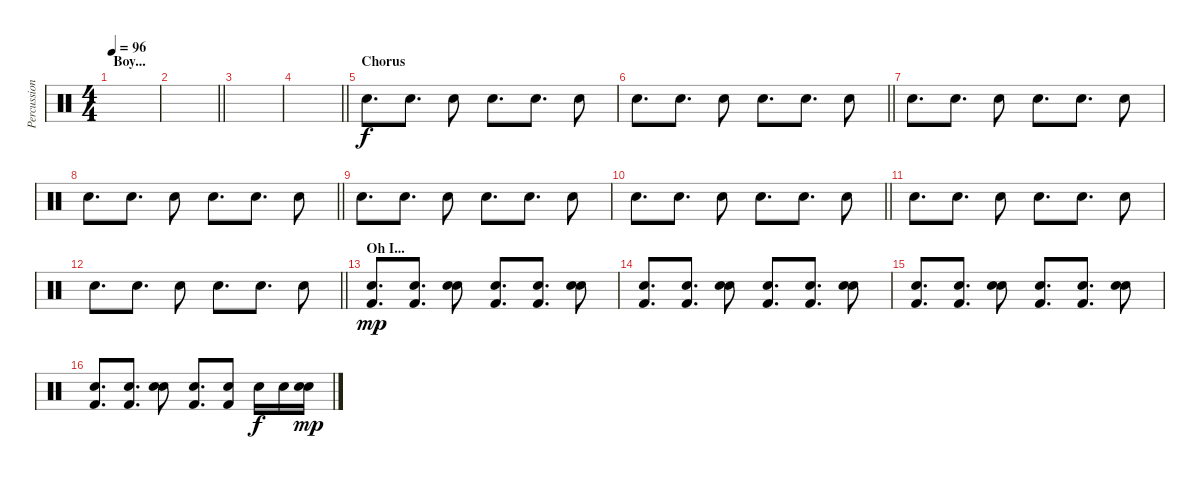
\track ("Percussion" "Percussion") {instrument percussion bank 2}
\staff {score}
\articulation defaults
\ts (4 4)
\section ("" "Boy...")
\tempo 96
\clef neutral
\ks c
|
\barLineRight lightlight
|
|
\barLineRight lightlight
|
\section ("" "Chorus")
"Hand Clap (hit)".8{d} "Hand Clap (hit)".8{d} "Hand Clap (hit)".8 "Hand Clap (hit)".8{d} "Hand Clap (hit)".8{d} "Hand Clap (hit)".8 |
\barLineRight lightlight "Hand Clap (hit)".8{d} "Hand Clap (hit)".8{d} "Hand Clap (hit)".8 "Hand Clap (hit)".8{d} "Hand Clap (hit)".8{d} "Hand Clap (hit)".8
|
"Hand Clap (hit)".8{d} "Hand Clap (hit)".8{d} "Hand Clap (hit)".8 "Hand Clap (hit)".8{d} "Hand Clap (hit)".8{d} "Hand Clap (hit)".8 |
\barLineRight lightlight "Hand Clap (hit)".8{d} "Hand Clap (hit)".8{d} "Hand Clap (hit)".8 "Hand Clap (hit)".8{d} "Hand Clap (hit)".8{d} "Hand Clap (hit)".8
|
"Hand Clap (hit)".8{d} "Hand Clap (hit)".8{d} "Hand Clap (hit)".8 "Hand Clap (hit)".8{d} "Hand Clap (hit)".8{d} "Hand Clap (hit)".8 |
\barLineRight lightlight "Hand Clap (hit)".8{d} "Hand Clap (hit)".8{d} "Hand Clap (hit)".8 "Hand Clap (hit)".8{d} "Hand Clap (hit)".8{d} "Hand Clap (hit)".8
|
"Hand Clap (hit)".8{d} "Hand Clap (hit)".8{d} "Hand Clap (hit)".8 "Hand Clap (hit)".8{d} "Hand Clap (hit)".8{d} "Hand Clap (hit)".8 |
\barLineRight lightlight "Hand Clap (hit)".8{d} "Hand Clap (hit)".8{d} "Hand Clap (hit)".8 "Hand Clap (hit)".8{d} "Hand Clap (hit)".8{d} "Hand Clap (hit)".8
|
\section ("" "Oh I...")
("Hand Clap (hit)" "Kick (hit) 2").8{d dy mp} ("Hand Clap (hit)" "Kick (hit) 2").8{d} ("Hand Clap (hit)" "Snare (hit) 2").8 ("Hand Clap (hit)" "Kick (hit) 2").8{d} ("Hand Clap (hit)" "Kick (hit) 2").8{d} ("Hand Clap (hit)" "Snare (hit) 2").8 |
("Hand Clap (hit)" "Kick (hit) 2").8{d} ("Hand Clap (hit)" "Kick (hit) 2").8{d} ("Hand Clap (hit)" "Snare (hit) 2").8 ("Hand Clap (hit)" "Kick (hit) 2").8{d} ("Hand Clap (hit)" "Kick (hit) 2").8{d} ("Hand Clap (hit)" "Snare (hit) 2").8 |
("Hand Clap (hit)" "Kick (hit) 2").8{d} ("Hand Clap (hit)" "Kick (hit) 2").8{d} ("Hand Clap (hit)" "Snare (hit) 2").8 ("Hand Clap (hit)" "Kick (hit) 2").8{d} ("Hand Clap (hit)" "Kick (hit) 2").8{d} ("Hand Clap (hit)" "Snare (hit) 2").8 |
("Hand Clap (hit)" "Kick (hit) 2").8{d} ("Hand Clap (hit)" "Kick (hit) 2").8{d} ("Hand Clap (hit)" "Snare (hit) 2").8 ("Hand Clap (hit)" "Kick (hit) 2").8{d} ("Hand Clap (hit)" "Kick (hit) 2").8 "Snare (hit) 2".16{dy f} "Snare (hit) 2".16 ("Hand Clap (hit)" "Snare (hit) 2").16{dy mp}
